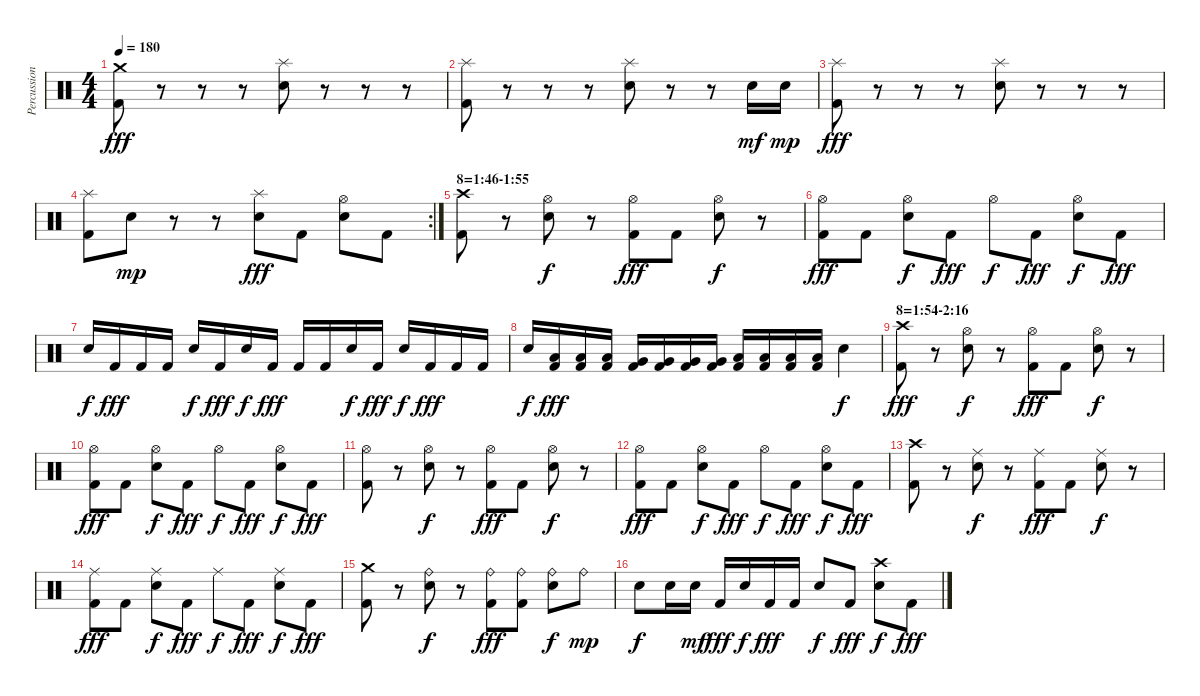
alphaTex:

\track ("Percussion" "Percussion") {instrument percussion}
\staff {score}
\articulation defaults
\ts (4 4)
\tempo 180
\clef neutral
\ks c
("Crash medium (hit)" "Kick (hit) 2").8{dy fff} r.8 r.8 r.8 ("Splash (hit)" "Electric Snare (hit)").8 r.8 r.8 r.8 |
("Splash (hit)" "Kick (hit) 2").8 r.8 r.8 r.8 ("Splash (hit)" "Electric Snare (hit)").8 r.8 r.8 "Electric Snare (hit)".16{dy mf} "Electric Snare (hit)".16{dy mp} |
("Splash (hit)" "Kick (hit) 2").8{dy fff} r.8 r.8 r.8 ("Splash (hit)" "Electric Snare (hit)").8 r.8 r.8 r.8 |
\rc 2
("Splash (hit)" "Kick (hit) 2").8 "Electric Snare (hit)".8{dy mp} r.8 r.8 ("Splash (hit)" "Electric Snare (hit)").8{dy fff} "Kick (hit) 2".8 ("Hi-Hat (open)" "Electric Snare (hit)").8 "Kick (hit) 2".8 |
\section ("" "8=1:46-1:55")
("Crash high (hit)" "Kick (hit) 2").8 r.8 ("Hi-Hat (open)" "Snare (hit) 2").8{dy f} r.8 ("Hi-Hat (open)" "Kick (hit) 2").8{dy fff} "Kick (hit) 2".8 ("Hi-Hat (open)" "Snare (hit) 2").8{dy f} r.8 |
("Hi-Hat (open)" "Kick (hit) 2").8{dy fff} "Kick (hit) 2".8 ("Hi-Hat (open)" "Snare (hit) 2").8{dy f} "Kick (hit) 2".8{dy fff} "Hi-Hat (open)".8{dy f} "Kick (hit) 2".8{dy fff} ("Hi-Hat (open)" "Snare (hit) 2").8{dy f} "Kick (hit) 2".8{dy fff} |
"Snare (hit) 2".16{dy f} "Kick (hit) 2".16{dy fff} "Kick (hit) 2".16 "Kick (hit) 2".16 "Snare (hit) 2".16{dy f} "Kick (hit) 2".16{dy fff} "Snare (hit) 2".16{dy f} "Kick (hit) 2".16{dy fff} "Kick (hit) 2".16 "Kick (hit) 2".16 "Snare (hit) 2".16{dy f} "Kick (hit) 2".16{dy fff} "Snare (hit) 2".16{dy f} "Kick (hit) 2".16{dy fff} "Kick (hit) 2".16 "Kick (hit) 2".16 |
"Snare (hit) 2".16{dy f} ("Low Tom (hit)" "Kick (hit) 2").16{dy fff} ("Low Tom (hit)" "Kick (hit) 2").16 ("Low Tom (hit)" "Kick (hit) 2").16 ("Very Low Tom (hit)" "Kick (hit) 2").16 ("Very Low Tom (hit)" "Kick (hit) 2").16 ("Very Low Tom (hit)" "Kick (hit) 2").16 ("Very Low Tom (hit)" "Kick (hit) 2").16 ("Low Floor Tom (hit)" "Kick (hit) 2").16 ("Low Floor Tom (hit)" "Kick (hit) 2").16 ("Low Floor Tom (hit)" "Kick (hit) 2").16 ("Low Floor Tom (hit)" "Kick (hit) 2").16 "Snare (hit) 2".4{dy f} |
\section ("" "8=1:54-2:16")
("Crash high (hit)" "Kick (hit) 2").8{dy fff} r.8 ("Hi-Hat (open)" "Snare (hit) 2").8{dy f} r.8 ("Hi-Hat (open)" "Kick (hit) 2").8{dy fff} "Kick (hit) 2".8 ("Hi-Hat (open)" "Snare (hit) 2").8{dy f} r.8 |
("Hi-Hat (open)" "Kick (hit) 2").8{dy fff} "Kick (hit) 2".8 ("Hi-Hat (open)" "Snare (hit) 2").8{dy f} "Kick (hit) 2".8{dy fff} "Hi-Hat (open)".8{dy f} "Kick (hit) 2".8{dy fff} ("Hi-Hat (open)" "Snare (hit) 2").8{dy f} "Kick (hit) 2".8{dy fff} |
("Hi-Hat (open)" "Kick (hit) 2").8 r.8 ("Hi-Hat (open)" "Snare (hit) 2").8{dy f} r.8 ("Hi-Hat (open)" "Kick (hit) 2").8{dy fff} "Kick (hit) 2".8 ("Hi-Hat (open)" "Snare (hit) 2").8{dy f} r.8 |
("Hi-Hat (open)" "Kick (hit) 2").8{dy fff} "Kick (hit) 2".8 ("Hi-Hat (open)" "Snare (hit) 2").8{dy f} "Kick (hit) 2".8{dy fff} "Hi-Hat (open)".8{dy f} "Kick (hit) 2".8{dy fff} ("Hi-Hat (open)" "Snare (hit) 2").8{dy f} "Kick (hit) 2".8{dy fff} |
("Crash high (hit)" "Kick (hit) 2").8 r.8 ("Ride (middle)" "Snare (hit) 2").8{dy f} r.8 ("Ride (middle)" "Kick (hit) 2").8{dy fff} "Kick (hit) 2".8 ("Ride (middle)" "Snare (hit) 2").8{dy f} r.8 |
("Ride (middle)" "Kick (hit) 2").8{dy fff} "Kick (hit) 2".8 ("Ride (middle)" "Snare (hit) 2").8{dy f} "Kick (hit) 2".8{dy fff} "Ride (middle)".8{dy f} "Kick (hit) 2".8{dy fff} ("Ride (middle)" "Snare (hit) 2").8{dy f} "Kick (hit) 2".8{dy fff} |
("Crash medium (hit)" "Kick (hit) 2").8 r.8 ("Ride (bell)" "Snare (hit) 2").8{dy f} r.8 ("Ride (bell)" "Kick (hit) 2").8{dy fff} ("Ride (bell)" "Kick (hit) 2").8 ("Ride (bell)" "Snare (hit) 2").8{dy f} "Ride (bell)".8{dy mp} |
"Snare (hit) 2".8{dy f} "Snare (hit) 2".16 "Snare (hit) 2".16{dy mf} "Kick (hit) 2".16{dy fff} "Snare (hit) 2".16{dy f} "Kick (hit) 2".16{dy fff} "Kick (hit) 2".16 "Snare (hit) 2".8{dy f} "Kick (hit) 2".8{dy fff} ("Crash high (hit)" "Snare (hit) 2").8{dy f} "Kick (hit) 2".8{dy fff}
